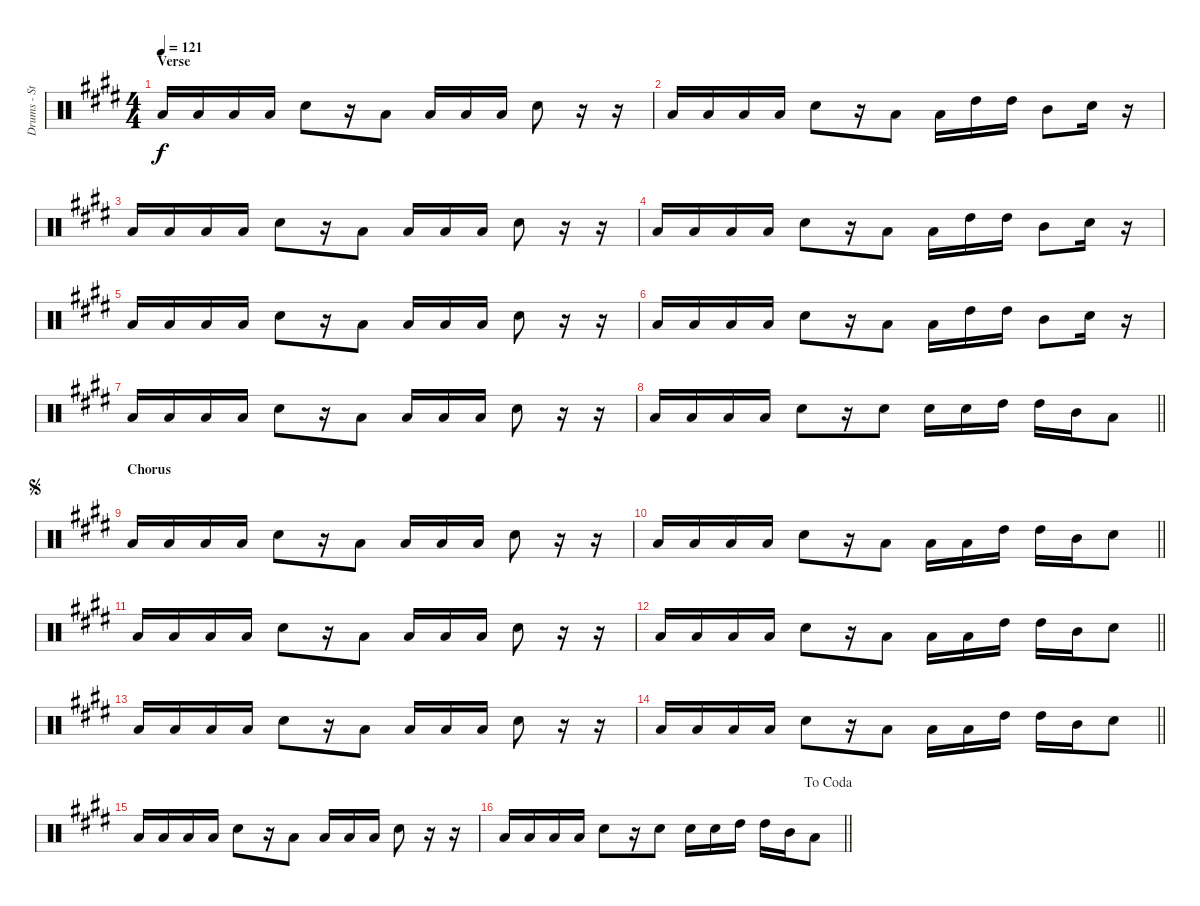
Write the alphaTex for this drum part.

\track ("Drums - Stephen Morris" "Drums - St") {instrument percussion}
\staff {score}
\articulation defaults
\ts (4 4)
\section ("" "Verse")
\tempo 121
\clef neutral
\ks c#minor "Low Tom (hit)".16{dy f} "Low Tom (hit)".16 "Low Tom (hit)".16 "Low Tom (hit)".16 "Electric Snare (hit)".8
r.16 "Low Tom (hit)".8 "Low Tom (hit)".16 "Low Tom (hit)".16 "Low Tom (hit)".16 "Electric Snare (hit)".8 r.16 r.16 |
\ks e "Low Tom (hit)".16 "Low Tom (hit)".16 "Low Tom (hit)".16 "Low Tom (hit)".16 "Electric Snare (hit)".8
r.16 "Low Tom (hit)".8 "Low Tom (hit)".16 "High Tom (hit)".16 "High Tom (hit)".16 "Mid Tom (hit)".8 "Electric Snare (hit)".16 r.16 |
\ks c#minor "Low Tom (hit)".16 "Low Tom (hit)".16 "Low Tom (hit)".16 "Low Tom (hit)".16 "Electric Snare (hit)".8
r.16 "Low Tom (hit)".8 "Low Tom (hit)".16 "Low Tom (hit)".16 "Low Tom (hit)".16 "Electric Snare (hit)".8 r.16 r.16 |
\ks e "Low Tom (hit)".16 "Low Tom (hit)".16 "Low Tom (hit)".16 "Low Tom (hit)".16 "Electric Snare (hit)".8
r.16 "Low Tom (hit)".8 "Low Tom (hit)".16 "High Tom (hit)".16 "High Tom (hit)".16 "Mid Tom (hit)".8 "Electric Snare (hit)".16 r.16 |
\ks c#minor "Low Tom (hit)".16 "Low Tom (hit)".16 "Low Tom (hit)".16 "Low Tom (hit)".16 "Electric Snare (hit)".8
r.16 "Low Tom (hit)".8 "Low Tom (hit)".16 "Low Tom (hit)".16 "Low Tom (hit)".16 "Electric Snare (hit)".8 r.16 r.16 |
\ks e "Low Tom (hit)".16 "Low Tom (hit)".16 "Low Tom (hit)".16 "Low Tom (hit)".16 "Electric Snare (hit)".8
r.16 "Low Tom (hit)".8 "Low Tom (hit)".16 "High Tom (hit)".16 "High Tom (hit)".16 "Mid Tom (hit)".8 "Electric Snare (hit)".16 r.16 |
\ks c#minor "Low Tom (hit)".16 "Low Tom (hit)".16 "Low Tom (hit)".16 "Low Tom (hit)".16 "Electric Snare (hit)".8
r.16 "Low Tom (hit)".8 "Low Tom (hit)".16 "Low Tom (hit)".16 "Low Tom (hit)".16 "Electric Snare (hit)".8 r.16 r.16 |
\barLineRight lightlight
\ks e "Low Tom (hit)".16 "Low Tom (hit)".16 "Low Tom (hit)".16 "Low Tom (hit)".16 "Electric Snare (hit)".8
r.16 "Electric Snare (hit)".8 "Electric Snare (hit)".16 "Electric Snare (hit)".16 "High Tom (hit)".16 "High Tom (hit)".16 "Mid Tom (hit)".16 "Low Tom (hit)".8 |
\section ("" "Chorus")
\jump segno "Low Tom (hit)".16 "Low Tom (hit)".16 "Low Tom (hit)".16 "Low Tom (hit)".16 "Electric Snare (hit)".8
r.16 "Low Tom (hit)".8 "Low Tom (hit)".16 "Low Tom (hit)".16 "Low Tom (hit)".16 "Electric Snare (hit)".8 r.16 r.16 |
\barLineRight lightlight
\ks c#minor "Low Tom (hit)".16 "Low Tom (hit)".16 "Low Tom (hit)".16 "Low Tom (hit)".16 "Electric Snare (hit)".8
r.16 "Low Tom (hit)".8 "Low Tom (hit)".16 "Low Tom (hit)".16 "High Tom (hit)".16 "High Tom (hit)".16 "Mid Tom (hit)".16 "Electric Snare (hit)".8 |
\ks e "Low Tom (hit)".16 "Low Tom (hit)".16 "Low Tom (hit)".16 "Low Tom (hit)".16 "Electric Snare (hit)".8
r.16 "Low Tom (hit)".8 "Low Tom (hit)".16 "Low Tom (hit)".16 "Low Tom (hit)".16 "Electric Snare (hit)".8 r.16 r.16 |
\barLineRight lightlight
\ks c#minor "Low Tom (hit)".16 "Low Tom (hit)".16 "Low Tom (hit)".16 "Low Tom (hit)".16 "Electric Snare (hit)".8
r.16 "Low Tom (hit)".8 "Low Tom (hit)".16 "Low Tom (hit)".16 "High Tom (hit)".16 "High Tom (hit)".16 "Mid Tom (hit)".16 "Electric Snare (hit)".8 |
\ks e "Low Tom (hit)".16 "Low Tom (hit)".16 "Low Tom (hit)".16 "Low Tom (hit)".16 "Electric Snare (hit)".8
r.16 "Low Tom (hit)".8 "Low Tom (hit)".16 "Low Tom (hit)".16 "Low Tom (hit)".16 "Electric Snare (hit)".8 r.16 r.16 |
\barLineRight lightlight
\ks c#minor "Low Tom (hit)".16 "Low Tom (hit)".16 "Low Tom (hit)".16 "Low Tom (hit)".16 "Electric Snare (hit)".8
r.16 "Low Tom (hit)".8 "Low Tom (hit)".16 "Low Tom (hit)".16 "High Tom (hit)".16 "High Tom (hit)".16 "Mid Tom (hit)".16 "Electric Snare (hit)".8 |
\ks e "Low Tom (hit)".16 "Low Tom (hit)".16 "Low Tom (hit)".16 "Low Tom (hit)".16 "Electric Snare (hit)".8
r.16 "Low Tom (hit)".8 "Low Tom (hit)".16 "Low Tom (hit)".16 "Low Tom (hit)".16 "Electric Snare (hit)".8 r.16 r.16 |
\jump dacoda
\barLineRight lightlight
\ks c#minor "Low Tom (hit)".16 "Low Tom (hit)".16 "Low Tom (hit)".16 "Low Tom (hit)".16 "Electric Snare (hit)".8
r.16 "Electric Snare (hit)".8 "Electric Snare (hit)".16 "Electric Snare (hit)".16 "High Tom (hit)".16 "High Tom (hit)".16 "Mid Tom (hit)".16 "Low Tom (hit)".8
